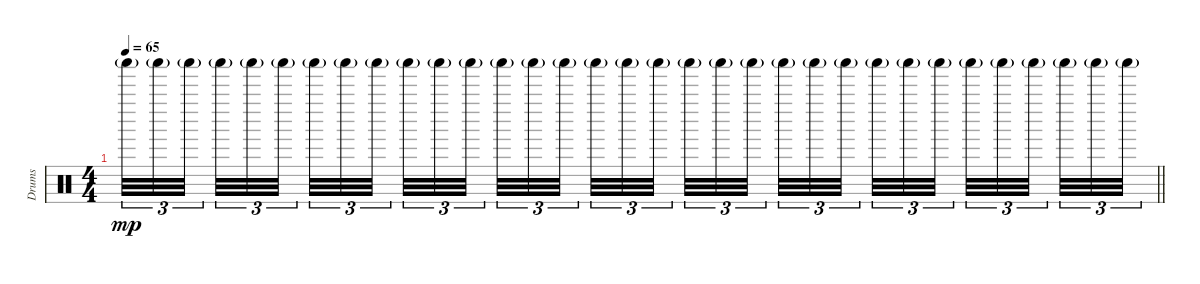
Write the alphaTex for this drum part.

\track ("Drums" "Drums") {instrument percussion}
\staff {score}
\articulation defaults
\ts (4 4)
\tempo 65
\clef neutral
\barLineRight lightlight
\ks c "Shaker (hit)"{g}.32{tu (3 2) dy mp} "Shaker (hit)"{g}.32{tu (3 2)} "Shaker (hit)"{g}.32{tu (3 2) beam splitsecondary} "Shaker (hit)"{g}.32{tu (3 2)} "Shaker (hit)"{g}.32{tu (3 2)} "Shaker (hit)"{g}.32{tu (3 2) beam splitsecondary} "Shaker (hit)"{g}.32{tu (3 2)} "Shaker (hit)"{g}.32{tu (3 2)} "Shaker (hit)"{g}.32{tu (3 2) beam splitsecondary} "Shaker (hit)"{g}.32{tu (3 2)} "Shaker (hit)"{g}.32{tu (3 2)} "Shaker (hit)"{g}.32{tu (3 2)} "Shaker (hit)"{g}.32{tu (3 2)} "Shaker (hit)"{g}.32{tu (3 2)} "Shaker (hit)"{g}.32{tu (3 2) beam splitsecondary} "Shaker (hit)"{g}.32{tu (3 2)} "Shaker (hit)"{g}.32{tu (3 2)} "Shaker (hit)"{g}.32{tu (3 2) beam splitsecondary} "Shaker (hit)"{g}.32{tu (3 2)} "Shaker (hit)"{g}.32{tu (3 2)} "Shaker (hit)"{g}.32{tu (3 2) beam splitsecondary} "Shaker (hit)"{g}.32{tu (3 2)} "Shaker (hit)"{g}.32{tu (3 2)} "Shaker (hit)"{g}.32{tu (3 2)} "Shaker (hit)"{g}.32{tu (3 2)} "Shaker (hit)"{g}.32{tu (3 2)} "Shaker (hit)"{g}.32{tu (3 2) beam splitsecondary} "Shaker (hit)"{g}.32{tu (3 2)} "Shaker (hit)"{g}.32{tu (3 2)} "Shaker (hit)"{g}.32{tu (3 2) beam splitsecondary} "Shaker (hit)"{g}.32{tu (3 2)} "Shaker (hit)"{g}.32{tu (3 2)} "Shaker (hit)"{g}.32{tu (3 2)}
